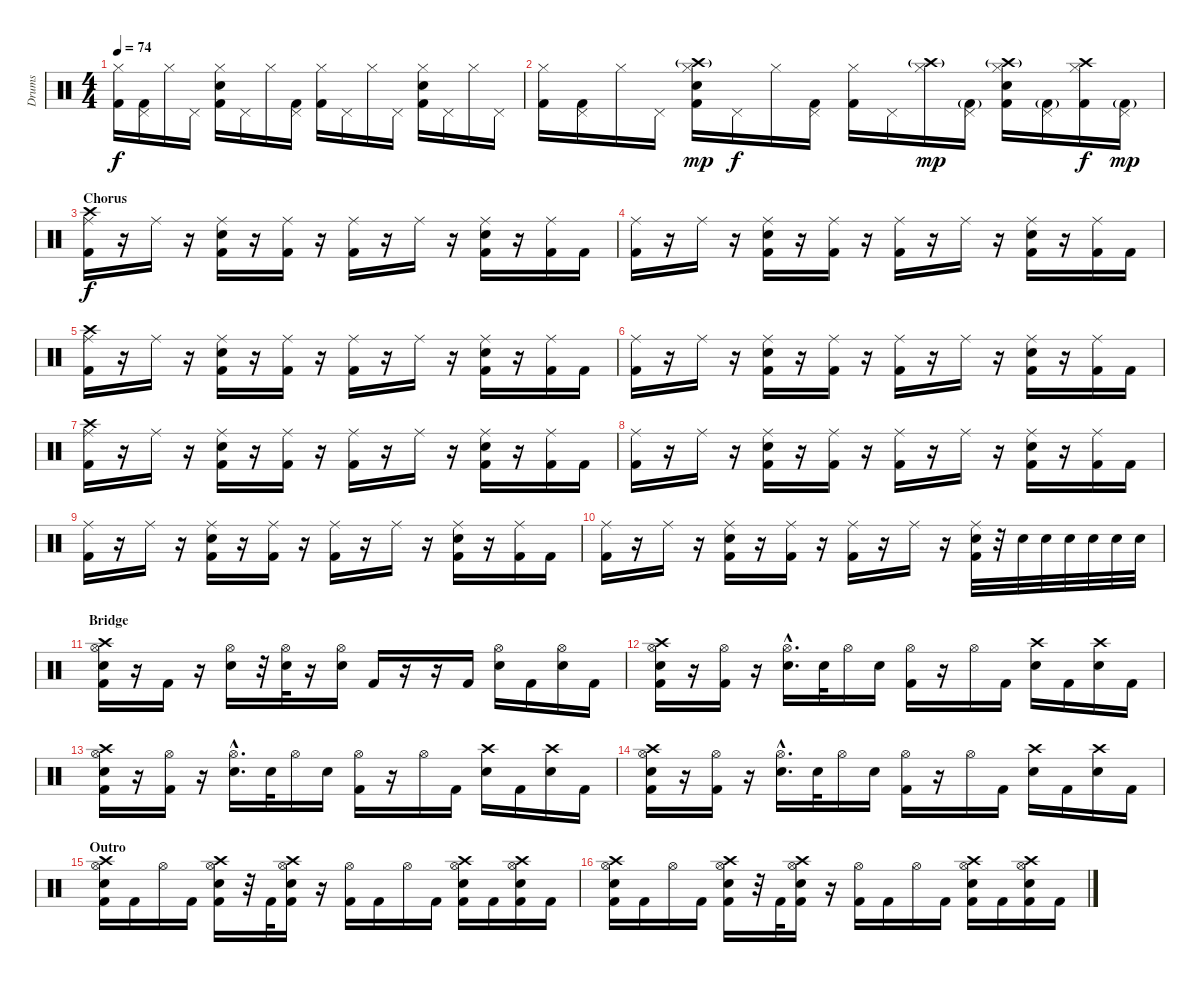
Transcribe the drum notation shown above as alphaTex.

\track ("Drums" "Drums") {instrument percussion}
\staff {score}
\articulation defaults
\ts (4 4)
\tempo 74
\clef neutral
\ks c
("Hi-Hat (closed)" "Kick (hit) 2").16{dy f} ("Pedal Hi-Hat (hit)" "Kick (hit) 2").16 "Hi-Hat (closed)".16 "Pedal Hi-Hat (hit)".16 ("Hi-Hat (closed)" "Kick (hit) 2" "Snare (hit) 2").16 "Pedal Hi-Hat (hit)".16 "Hi-Hat (closed)".16 ("Pedal Hi-Hat (hit)" "Kick (hit) 2").16 ("Hi-Hat (closed)" "Kick (hit) 2").16 "Pedal Hi-Hat (hit)".16 "Hi-Hat (closed)".16 "Pedal Hi-Hat (hit)".16 ("Hi-Hat (closed)" "Kick (hit) 2" "Snare (hit) 2").16 "Pedal Hi-Hat (hit)".16 "Hi-Hat (closed)".16 "Pedal Hi-Hat (hit)".16 |
("Hi-Hat (closed)" "Kick (hit) 2").16 ("Pedal Hi-Hat (hit)" "Kick (hit) 2").16 "Hi-Hat (closed)".16 "Pedal Hi-Hat (hit)".16 ("Hi-Hat (closed)" "Crash high (hit)"{g} "Kick (hit) 2" "Snare (hit) 2").16{dy mp} "Pedal Hi-Hat (hit)".16{dy f} "Hi-Hat (closed)".16 ("Pedal Hi-Hat (hit)" "Kick (hit) 2").16 ("Hi-Hat (closed)" "Kick (hit) 2").16 "Pedal Hi-Hat (hit)".16 ("Hi-Hat (closed)" "Crash high (hit)"{g}).16{dy mp} ("Pedal Hi-Hat (hit)" "Kick (hit) 2"{g}).16 ("Hi-Hat (closed)" "Crash high (hit)"{g} "Kick (hit) 2" "Snare (hit) 2").16 ("Pedal Hi-Hat (hit)" "Kick (hit) 2"{g}).16 ("Hi-Hat (closed)" "Crash high (hit)" "Kick (hit) 2").16{dy f} ("Pedal Hi-Hat (hit)" "Kick (hit) 2"{g}).16{dy mp} |
\section ("" "Chorus")
("Crash high (hit)" "Ride (middle)" "Kick (hit) 2").16{dy f} r.16 "Ride (middle)".16 r.16 ("Ride (middle)" "Kick (hit) 2" "Snare (hit) 2").16 r.16 ("Ride (middle)" "Kick (hit) 2").16 r.16 ("Ride (middle)" "Kick (hit) 2").16 r.16 "Ride (middle)".16 r.16 ("Ride (middle)" "Kick (hit) 2" "Snare (hit) 2").16 r.16 ("Ride (middle)" "Kick (hit) 2").16 "Kick (hit) 2".16 |
("Ride (middle)" "Kick (hit) 2").16 r.16 "Ride (middle)".16 r.16 ("Ride (middle)" "Kick (hit) 2" "Snare (hit) 2").16 r.16 ("Ride (middle)" "Kick (hit) 2").16 r.16 ("Ride (middle)" "Kick (hit) 2").16 r.16 "Ride (middle)".16 r.16 ("Ride (middle)" "Kick (hit) 2" "Snare (hit) 2").16 r.16 ("Ride (middle)" "Kick (hit) 2").16 "Kick (hit) 2".16 |
("Crash high (hit)" "Ride (middle)" "Kick (hit) 2").16 r.16 "Ride (middle)".16 r.16 ("Ride (middle)" "Kick (hit) 2" "Snare (hit) 2").16 r.16 ("Ride (middle)" "Kick (hit) 2").16 r.16 ("Ride (middle)" "Kick (hit) 2").16 r.16 "Ride (middle)".16 r.16 ("Ride (middle)" "Kick (hit) 2" "Snare (hit) 2").16 r.16 ("Ride (middle)" "Kick (hit) 2").16 "Kick (hit) 2".16 |
("Ride (middle)" "Kick (hit) 2").16 r.16 "Ride (middle)".16 r.16 ("Ride (middle)" "Kick (hit) 2" "Snare (hit) 2").16 r.16 ("Ride (middle)" "Kick (hit) 2").16 r.16 ("Ride (middle)" "Kick (hit) 2").16 r.16 "Ride (middle)".16 r.16 ("Ride (middle)" "Kick (hit) 2" "Snare (hit) 2").16 r.16 ("Ride (middle)" "Kick (hit) 2").16 "Kick (hit) 2".16 |
("Crash high (hit)" "Ride (middle)" "Kick (hit) 2").16 r.16 "Ride (middle)".16 r.16 ("Ride (middle)" "Kick (hit) 2" "Snare (hit) 2").16 r.16 ("Ride (middle)" "Kick (hit) 2").16 r.16 ("Ride (middle)" "Kick (hit) 2").16 r.16 "Ride (middle)".16 r.16 ("Ride (middle)" "Kick (hit) 2" "Snare (hit) 2").16 r.16 ("Ride (middle)" "Kick (hit) 2").16 "Kick (hit) 2".16 |
("Ride (middle)" "Kick (hit) 2").16 r.16 "Ride (middle)".16 r.16 ("Ride (middle)" "Kick (hit) 2" "Snare (hit) 2").16 r.16 ("Ride (middle)" "Kick (hit) 2").16 r.16 ("Ride (middle)" "Kick (hit) 2").16 r.16 "Ride (middle)".16 r.16 ("Ride (middle)" "Kick (hit) 2" "Snare (hit) 2").16 r.16 ("Ride (middle)" "Kick (hit) 2").16 "Kick (hit) 2".16 |
("Ride (middle)" "Kick (hit) 2").16 r.16 "Ride (middle)".16 r.16 ("Ride (middle)" "Kick (hit) 2" "Snare (hit) 2").16 r.16 ("Ride (middle)" "Kick (hit) 2").16 r.16 ("Ride (middle)" "Kick (hit) 2").16 r.16 "Ride (middle)".16 r.16 ("Ride (middle)" "Kick (hit) 2" "Snare (hit) 2").16 r.16 ("Ride (middle)" "Kick (hit) 2").16 "Kick (hit) 2".16 |
("Ride (middle)" "Kick (hit) 2").16 r.16 "Ride (middle)".16 r.16 ("Ride (middle)" "Kick (hit) 2" "Snare (hit) 2").16 r.16 ("Ride (middle)" "Kick (hit) 2").16 r.16 ("Ride (middle)" "Kick (hit) 2").16 r.16 "Ride (middle)".16 r.16 ("Ride (middle)" "Kick (hit) 2" "Snare (hit) 2").32 r.32 "Snare (hit) 2".32 "Snare (hit) 2".32 "Snare (hit) 2".32 "Snare (hit) 2".32 "Snare (hit) 2".32 "Snare (hit) 2".32 |
\section ("" "Bridge")
("Crash high (hit)" "Hi-Hat (open)" "Kick (hit) 2" "Snare (hit) 2").16 r.16 "Kick (hit) 2".16 r.16 ("Hi-Hat (open)" "Snare (hit) 2").16 r.32 ("Hi-Hat (open)" "Snare (hit) 2").32 r.16 ("Hi-Hat (open)" "Snare (hit) 2").16 "Kick (hit) 2".16 r.16 r.16 "Kick (hit) 2".16 ("Hi-Hat (open)" "Snare (hit) 2").16 "Kick (hit) 2".16 ("Hi-Hat (open)" "Snare (hit) 2").16 "Kick (hit) 2".16 |
("Crash high (hit)" "Hi-Hat (open)" "Kick (hit) 2" "Snare (hit) 2").16 r.16 ("Hi-Hat (open)" "Kick (hit) 2").16 r.16 ("Hi-Hat (open)"{hac} "Snare (hit) 2"{hac}).16{d} "Snare (hit) 2".32 "Hi-Hat (open)".16 "Snare (hit) 2".16 ("Hi-Hat (open)" "Kick (hit) 2").16 r.16 "Hi-Hat (open)".16 "Kick (hit) 2".16 ("Crash high (hit)" "Snare (hit) 2").16 "Kick (hit) 2".16 ("Crash high (hit)" "Snare (hit) 2").16 "Kick (hit) 2".16 |
("Crash high (hit)" "Hi-Hat (open)" "Kick (hit) 2" "Snare (hit) 2").16 r.16 ("Hi-Hat (open)" "Kick (hit) 2").16 r.16 ("Hi-Hat (open)"{hac} "Snare (hit) 2"{hac}).16{d} "Snare (hit) 2".32 "Hi-Hat (open)".16 "Snare (hit) 2".16 ("Hi-Hat (open)" "Kick (hit) 2").16 r.16 "Hi-Hat (open)".16 "Kick (hit) 2".16 ("Crash high (hit)" "Snare (hit) 2").16 "Kick (hit) 2".16 ("Crash high (hit)" "Snare (hit) 2").16 "Kick (hit) 2".16 |
("Crash high (hit)" "Hi-Hat (open)" "Kick (hit) 2" "Snare (hit) 2").16 r.16 ("Hi-Hat (open)" "Kick (hit) 2").16 r.16 ("Hi-Hat (open)"{hac} "Snare (hit) 2"{hac}).16{d} "Snare (hit) 2".32 "Hi-Hat (open)".16 "Snare (hit) 2".16 ("Hi-Hat (open)" "Kick (hit) 2").16 r.16 "Hi-Hat (open)".16 "Kick (hit) 2".16 ("Crash high (hit)" "Snare (hit) 2").16 "Kick (hit) 2".16 ("Crash high (hit)" "Snare (hit) 2").16 "Kick (hit) 2".16 |
\section ("" "Outro")
("Hi-Hat (open)" "Crash high (hit)" "Kick (hit) 2" "Snare (hit) 2").16 "Kick (hit) 2".16 "Hi-Hat (open)".16 "Kick (hit) 2".16 ("Hi-Hat (open)" "Crash high (hit)" "Kick (hit) 2" "Snare (hit) 2").16 r.32 "Kick (hit) 2".32 ("Hi-Hat (open)" "Crash high (hit)" "Kick (hit) 2" "Snare (hit) 2").16 r.16 ("Hi-Hat (open)" "Kick (hit) 2").16 "Kick (hit) 2".16 "Hi-Hat (open)".16 "Kick (hit) 2".16 ("Hi-Hat (open)" "Crash high (hit)" "Kick (hit) 2" "Snare (hit) 2").16 "Kick (hit) 2".16 ("Hi-Hat (open)" "Crash high (hit)" "Kick (hit) 2" "Snare (hit) 2").16 "Kick (hit) 2".16 |
("Hi-Hat (open)" "Crash high (hit)" "Kick (hit) 2" "Snare (hit) 2").16 "Kick (hit) 2".16 "Hi-Hat (open)".16 "Kick (hit) 2".16 ("Hi-Hat (open)" "Crash high (hit)" "Kick (hit) 2" "Snare (hit) 2").16 r.32 "Kick (hit) 2".32 ("Hi-Hat (open)" "Crash high (hit)" "Kick (hit) 2" "Snare (hit) 2").16 r.16 ("Hi-Hat (open)" "Kick (hit) 2").16 "Kick (hit) 2".16 "Hi-Hat (open)".16 "Kick (hit) 2".16 ("Hi-Hat (open)" "Crash high (hit)" "Kick (hit) 2" "Snare (hit) 2").16 "Kick (hit) 2".16 ("Hi-Hat (open)" "Crash high (hit)" "Kick (hit) 2" "Snare (hit) 2").16 "Kick (hit) 2".16
